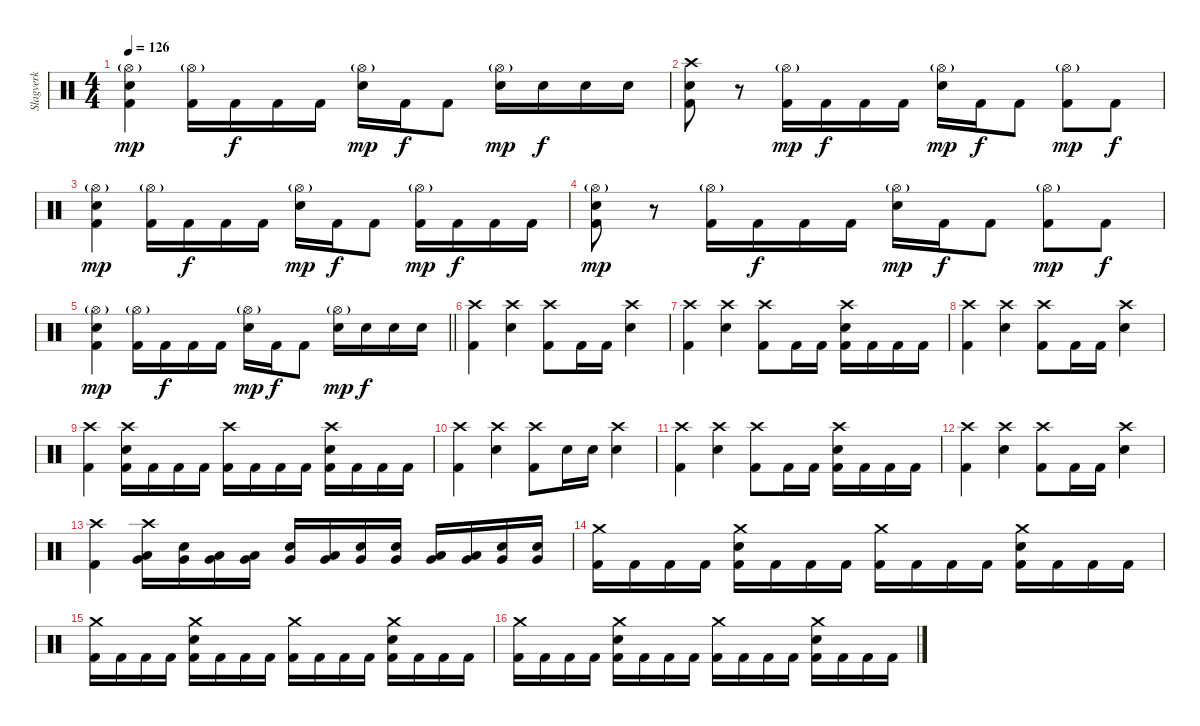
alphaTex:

\track ("Slagverk" "Slagverk") {instrument percussion}
\staff {score}
\articulation defaults
\ts (4 4)
\tempo 126
\clef neutral
\ks c
("Hi-Hat (open)"{g} "Kick (hit) 2" "Electric Snare (hit)").4{dy mp} ("Kick (hit) 2" "Hi-Hat (open)"{g}).16 "Kick (hit) 2".16{dy f} "Kick (hit) 2".16 "Kick (hit) 2".16 ("Hi-Hat (open)"{g} "Electric Snare (hit)").16{dy mp} "Kick (hit) 2".16{dy f} "Kick (hit) 2".8 ("Hi-Hat (open)"{g} "Electric Snare (hit)").16{dy mp} "Electric Snare (hit)".16{dy f} "Electric Snare (hit)".16 "Electric Snare (hit)".16 |
("Kick (hit) 2" "Snare (hit) 2" "Crash high (hit)").8 r.8 ("Kick (hit) 2" "Hi-Hat (open)"{g}).16{dy mp} "Kick (hit) 2".16{dy f} "Kick (hit) 2".16 "Kick (hit) 2".16 ("Hi-Hat (open)"{g} "Electric Snare (hit)").16{dy mp} "Kick (hit) 2".16{dy f} "Kick (hit) 2".8 ("Kick (hit) 2" "Hi-Hat (open)"{g}).8{dy mp} "Kick (hit) 2".8{dy f} |
("Hi-Hat (open)"{g} "Kick (hit) 2" "Electric Snare (hit)").4{dy mp} ("Kick (hit) 2" "Hi-Hat (open)"{g}).16 "Kick (hit) 2".16{dy f} "Kick (hit) 2".16 "Kick (hit) 2".16 ("Hi-Hat (open)"{g} "Electric Snare (hit)").16{dy mp} "Kick (hit) 2".16{dy f} "Kick (hit) 2".8 ("Kick (hit) 2" "Hi-Hat (open)"{g}).16{dy mp} "Kick (hit) 2".16{dy f} "Kick (hit) 2".16 "Kick (hit) 2".16 |
("Hi-Hat (open)"{g} "Kick (hit) 2" "Electric Snare (hit)").8{dy mp} r.8 ("Kick (hit) 2" "Hi-Hat (open)"{g}).16 "Kick (hit) 2".16{dy f} "Kick (hit) 2".16 "Kick (hit) 2".16 ("Hi-Hat (open)"{g} "Electric Snare (hit)").16{dy mp} "Kick (hit) 2".16{dy f} "Kick (hit) 2".8 ("Kick (hit) 2" "Hi-Hat (open)"{g}).8{dy mp} "Kick (hit) 2".8{dy f} |
\barLineRight lightlight
("Hi-Hat (open)"{g} "Kick (hit) 2" "Electric Snare (hit)").4{dy mp} ("Kick (hit) 2" "Hi-Hat (open)"{g}).16 "Kick (hit) 2".16{dy f} "Kick (hit) 2".16 "Kick (hit) 2".16 ("Hi-Hat (open)"{g} "Electric Snare (hit)").16{dy mp} "Kick (hit) 2".16{dy f} "Kick (hit) 2".8 ("Hi-Hat (open)"{g} "Electric Snare (hit)").16{dy mp} "Electric Snare (hit)".16{dy f} "Electric Snare (hit)".16 "Electric Snare (hit)".16 |
("Kick (hit) 2" "Crash high (hit)").4 ("Crash high (hit)" "Electric Snare (hit)").4 ("Crash high (hit)" "Kick (hit) 2").8 "Kick (hit) 2".16 "Kick (hit) 2".16 ("Crash high (hit)" "Electric Snare (hit)").4 |
("Kick (hit) 2" "Crash high (hit)").4 ("Crash high (hit)" "Electric Snare (hit)").4 ("Crash high (hit)" "Kick (hit) 2").8 "Kick (hit) 2".16 "Kick (hit) 2".16 ("Kick (hit) 2" "Crash high (hit)" "Electric Snare (hit)").16 "Kick (hit) 2".16 "Kick (hit) 2".16 "Kick (hit) 2".16 |
("Kick (hit) 2" "Crash high (hit)").4 ("Crash high (hit)" "Electric Snare (hit)").4 ("Crash high (hit)" "Kick (hit) 2").8 "Kick (hit) 2".16 "Kick (hit) 2".16 ("Crash high (hit)" "Electric Snare (hit)").4 |
("Kick (hit) 2" "Crash high (hit)").4 ("Crash high (hit)" "Kick (hit) 2" "Electric Snare (hit)").16 "Kick (hit) 2".16 "Kick (hit) 2".16 "Kick (hit) 2".16 ("Crash high (hit)" "Kick (hit) 2").16 "Kick (hit) 2".16 "Kick (hit) 2".16 "Kick (hit) 2".16 ("Crash high (hit)" "Kick (hit) 2" "Electric Snare (hit)").16 "Kick (hit) 2".16 "Kick (hit) 2".16 "Kick (hit) 2".16 |
("Kick (hit) 2" "Crash high (hit)").4 ("Crash high (hit)" "Electric Snare (hit)").4 ("Crash high (hit)" "Kick (hit) 2").8 "Electric Snare (hit)".16 "Electric Snare (hit)".16 ("Crash high (hit)" "Electric Snare (hit)").4 |
("Kick (hit) 2" "Crash high (hit)").4 ("Crash high (hit)" "Electric Snare (hit)").4 ("Crash high (hit)" "Kick (hit) 2").8 "Kick (hit) 2".16 "Kick (hit) 2".16 ("Kick (hit) 2" "Crash high (hit)" "Electric Snare (hit)").16 "Kick (hit) 2".16 "Kick (hit) 2".16 "Kick (hit) 2".16 |
("Kick (hit) 2" "Crash high (hit)").4 ("Crash high (hit)" "Electric Snare (hit)").4 ("Crash high (hit)" "Kick (hit) 2").8 "Kick (hit) 2".16 "Kick (hit) 2".16 ("Crash high (hit)" "Electric Snare (hit)").4 |
("Kick (hit) 2" "Crash high (hit)").4 ("Crash high (hit)" "Low Floor Tom (hit)" "Very Low Tom (hit)").16 ("Electric Snare (hit)" "Very Low Tom (hit)").16 ("Low Floor Tom (hit)" "Very Low Tom (hit)").16 ("Low Floor Tom (hit)" "Very Low Tom (hit)").16 ("Electric Snare (hit)" "Very Low Tom (hit)").16 ("Low Floor Tom (hit)" "Very Low Tom (hit)").16 ("Electric Snare (hit)" "Very Low Tom (hit)").16 ("Electric Snare (hit)" "Very Low Tom (hit)").16 ("Low Floor Tom (hit)" "Very Low Tom (hit)").16 ("Low Floor Tom (hit)" "Very Low Tom (hit)").16 ("Electric Snare (hit)" "Very Low Tom (hit)").16 ("Electric Snare (hit)" "Very Low Tom (hit)").16 |
("Crash medium (hit)" "Kick (hit) 2").16 "Kick (hit) 2".16 "Kick (hit) 2".16 "Kick (hit) 2".16 ("Electric Snare (hit)" "Kick (hit) 2" "Crash medium (hit)").16 "Kick (hit) 2".16 "Kick (hit) 2".16 "Kick (hit) 2".16 ("Crash medium (hit)" "Kick (hit) 2").16 "Kick (hit) 2".16 "Kick (hit) 2".16 "Kick (hit) 2".16 ("Electric Snare (hit)" "Kick (hit) 2" "Crash medium (hit)").16 "Kick (hit) 2".16 "Kick (hit) 2".16 "Kick (hit) 2".16 |
("Crash medium (hit)" "Kick (hit) 2").16 "Kick (hit) 2".16 "Kick (hit) 2".16 "Kick (hit) 2".16 ("Electric Snare (hit)" "Kick (hit) 2" "Crash medium (hit)").16 "Kick (hit) 2".16 "Kick (hit) 2".16 "Kick (hit) 2".16 ("Crash medium (hit)" "Kick (hit) 2").16 "Kick (hit) 2".16 "Kick (hit) 2".16 "Kick (hit) 2".16 ("Electric Snare (hit)" "Kick (hit) 2" "Crash medium (hit)").16 "Kick (hit) 2".16 "Kick (hit) 2".16 "Kick (hit) 2".16 |
("Crash medium (hit)" "Kick (hit) 2").16 "Kick (hit) 2".16 "Kick (hit) 2".16 "Kick (hit) 2".16 ("Electric Snare (hit)" "Kick (hit) 2" "Crash medium (hit)").16 "Kick (hit) 2".16 "Kick (hit) 2".16 "Kick (hit) 2".16 ("Crash medium (hit)" "Kick (hit) 2").16 "Kick (hit) 2".16 "Kick (hit) 2".16 "Kick (hit) 2".16 ("Electric Snare (hit)" "Kick (hit) 2" "Crash medium (hit)").16 "Kick (hit) 2".16 "Kick (hit) 2".16 "Kick (hit) 2".16
